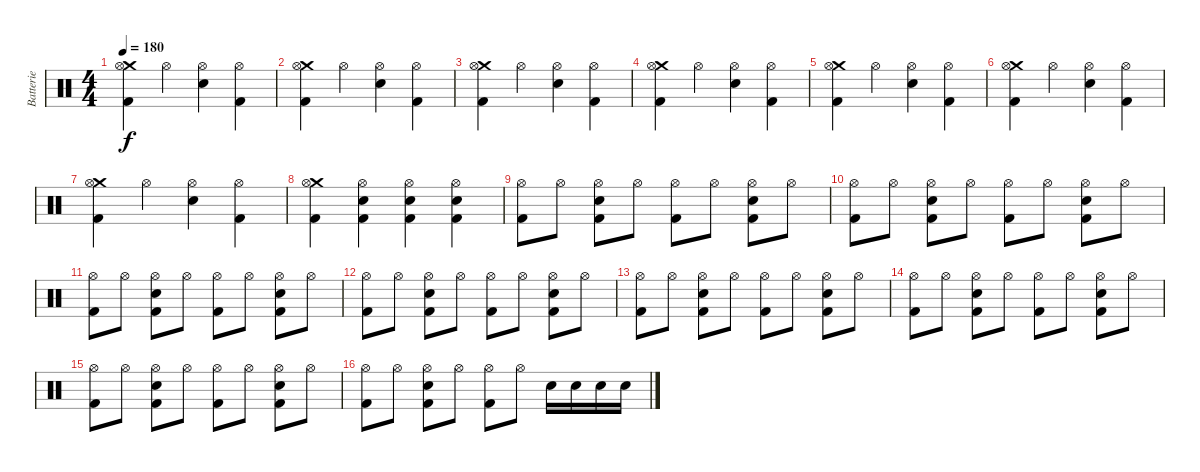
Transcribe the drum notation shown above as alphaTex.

\track ("Batterie" "Batterie") {instrument percussion}
\staff {score}
\articulation defaults
\ts (4 4)
\tempo 180
\clef neutral
\ks c
("Crash medium (hit)" "Hi-Hat (open)" "Kick (hit) 2").4{dy f} "Hi-Hat (open)".4 ("Electric Snare (hit)" "Hi-Hat (open)").4 ("Hi-Hat (open)" "Kick (hit) 2").4 |
("Crash medium (hit)" "Hi-Hat (open)" "Kick (hit) 2").4 "Hi-Hat (open)".4 ("Electric Snare (hit)" "Hi-Hat (open)").4 ("Hi-Hat (open)" "Kick (hit) 2").4 |
("Crash medium (hit)" "Hi-Hat (open)" "Kick (hit) 2").4 "Hi-Hat (open)".4 ("Electric Snare (hit)" "Hi-Hat (open)").4 ("Hi-Hat (open)" "Kick (hit) 2").4 |
("Crash medium (hit)" "Hi-Hat (open)" "Kick (hit) 2").4 "Hi-Hat (open)".4 ("Electric Snare (hit)" "Hi-Hat (open)").4 ("Hi-Hat (open)" "Kick (hit) 2").4 |
("Crash medium (hit)" "Hi-Hat (open)" "Kick (hit) 2").4 "Hi-Hat (open)".4 ("Electric Snare (hit)" "Hi-Hat (open)").4 ("Hi-Hat (open)" "Kick (hit) 2").4 |
("Crash medium (hit)" "Hi-Hat (open)" "Kick (hit) 2").4 "Hi-Hat (open)".4 ("Electric Snare (hit)" "Hi-Hat (open)").4 ("Hi-Hat (open)" "Kick (hit) 2").4 |
("Crash medium (hit)" "Hi-Hat (open)" "Kick (hit) 2").4 "Hi-Hat (open)".4 ("Electric Snare (hit)" "Hi-Hat (open)").4 ("Hi-Hat (open)" "Kick (hit) 2").4 |
("Crash medium (hit)" "Hi-Hat (open)" "Kick (hit) 2").4 ("Electric Snare (hit)" "Hi-Hat (open)" "Kick (hit) 2").4 ("Electric Snare (hit)" "Hi-Hat (open)" "Kick (hit) 2").4 ("Electric Snare (hit)" "Hi-Hat (open)" "Kick (hit) 2").4 |
("Hi-Hat (open)" "Kick (hit) 2").8 "Hi-Hat (open)".8 ("Hi-Hat (open)" "Electric Snare (hit)" "Kick (hit) 2").8 "Hi-Hat (open)".8 ("Hi-Hat (open)" "Kick (hit) 2").8 "Hi-Hat (open)".8 ("Hi-Hat (open)" "Electric Snare (hit)" "Kick (hit) 2").8 "Hi-Hat (open)".8 |
("Hi-Hat (open)" "Kick (hit) 2").8 "Hi-Hat (open)".8 ("Hi-Hat (open)" "Electric Snare (hit)" "Kick (hit) 2").8 "Hi-Hat (open)".8 ("Hi-Hat (open)" "Kick (hit) 2").8 "Hi-Hat (open)".8 ("Hi-Hat (open)" "Electric Snare (hit)" "Kick (hit) 2").8 "Hi-Hat (open)".8 |
("Hi-Hat (open)" "Kick (hit) 2").8 "Hi-Hat (open)".8 ("Hi-Hat (open)" "Electric Snare (hit)" "Kick (hit) 2").8 "Hi-Hat (open)".8 ("Hi-Hat (open)" "Kick (hit) 2").8 "Hi-Hat (open)".8 ("Hi-Hat (open)" "Electric Snare (hit)" "Kick (hit) 2").8 "Hi-Hat (open)".8 |
("Hi-Hat (open)" "Kick (hit) 2").8 "Hi-Hat (open)".8 ("Hi-Hat (open)" "Electric Snare (hit)" "Kick (hit) 2").8 "Hi-Hat (open)".8 ("Hi-Hat (open)" "Kick (hit) 2").8 "Hi-Hat (open)".8 ("Hi-Hat (open)" "Electric Snare (hit)" "Kick (hit) 2").8 "Hi-Hat (open)".8 |
("Hi-Hat (open)" "Kick (hit) 2").8 "Hi-Hat (open)".8 ("Hi-Hat (open)" "Electric Snare (hit)" "Kick (hit) 2").8 "Hi-Hat (open)".8 ("Hi-Hat (open)" "Kick (hit) 2").8 "Hi-Hat (open)".8 ("Hi-Hat (open)" "Electric Snare (hit)" "Kick (hit) 2").8 "Hi-Hat (open)".8 |
("Hi-Hat (open)" "Kick (hit) 2").8 "Hi-Hat (open)".8 ("Hi-Hat (open)" "Electric Snare (hit)" "Kick (hit) 2").8 "Hi-Hat (open)".8 ("Hi-Hat (open)" "Kick (hit) 2").8 "Hi-Hat (open)".8 ("Hi-Hat (open)" "Electric Snare (hit)" "Kick (hit) 2").8 "Hi-Hat (open)".8 |
("Hi-Hat (open)" "Kick (hit) 2").8 "Hi-Hat (open)".8 ("Hi-Hat (open)" "Electric Snare (hit)" "Kick (hit) 2").8 "Hi-Hat (open)".8 ("Hi-Hat (open)" "Kick (hit) 2").8 "Hi-Hat (open)".8 ("Hi-Hat (open)" "Electric Snare (hit)" "Kick (hit) 2").8 "Hi-Hat (open)".8 |
("Hi-Hat (open)" "Kick (hit) 2").8 "Hi-Hat (open)".8 ("Hi-Hat (open)" "Electric Snare (hit)" "Kick (hit) 2").8 "Hi-Hat (open)".8 ("Hi-Hat (open)" "Kick (hit) 2").8 "Hi-Hat (open)".8 "Electric Snare (hit)".16 "Electric Snare (hit)".16 "Electric Snare (hit)".16 "Electric Snare (hit)".16
